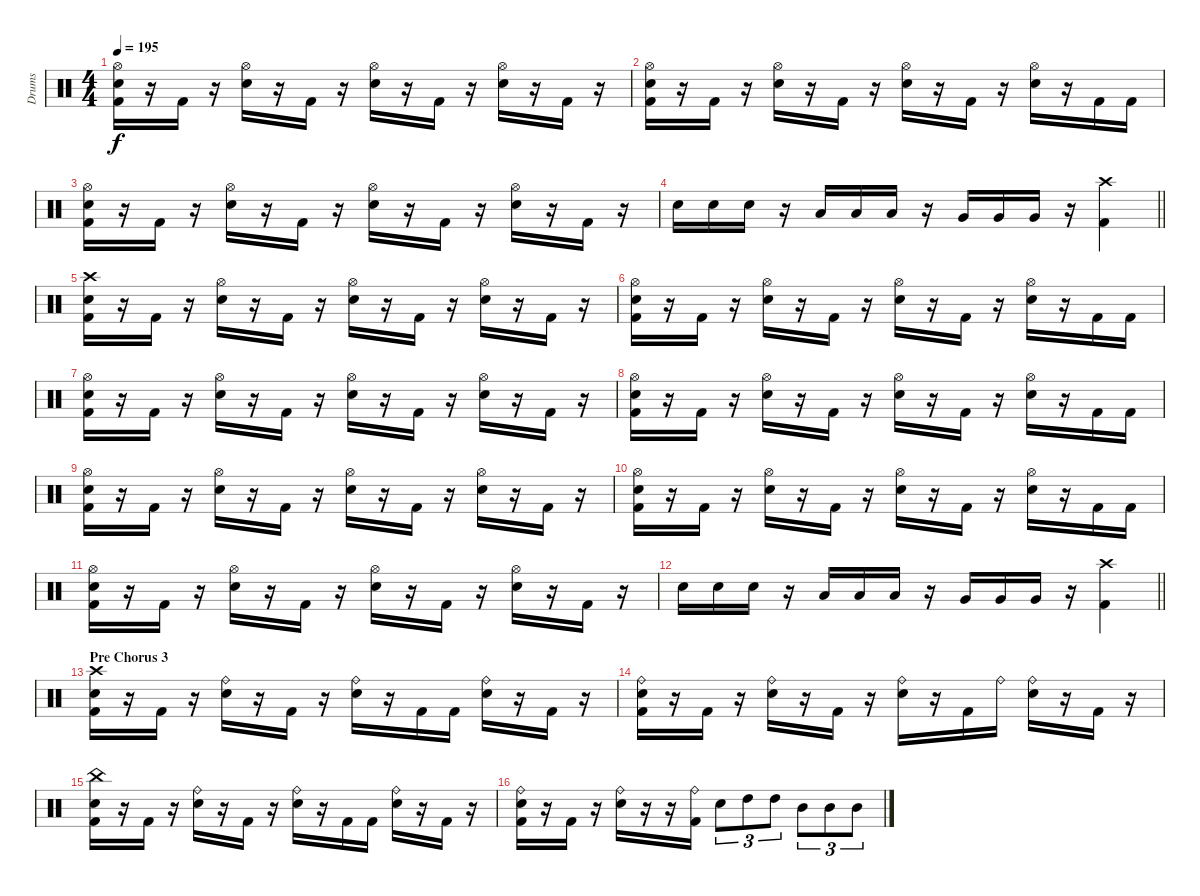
\track ("Drums" "Drums") {instrument percussion}
\staff {score}
\articulation defaults
\ts (4 4)
\tempo 195
\clef neutral
\ks c
("Hi-Hat (open)" "Electric Snare (hit)" "Kick (hit) 2").16{dy f} r.16 "Kick (hit) 2".16 r.16 ("Hi-Hat (open)" "Electric Snare (hit)").16 r.16 "Kick (hit) 2".16 r.16 ("Hi-Hat (open)" "Electric Snare (hit)").16 r.16 "Kick (hit) 2".16 r.16 ("Hi-Hat (open)" "Electric Snare (hit)").16 r.16 "Kick (hit) 2".16 r.16 |
("Hi-Hat (open)" "Electric Snare (hit)" "Kick (hit) 2").16 r.16 "Kick (hit) 2".16 r.16 ("Hi-Hat (open)" "Electric Snare (hit)").16 r.16 "Kick (hit) 2".16 r.16 ("Hi-Hat (open)" "Electric Snare (hit)").16 r.16 "Kick (hit) 2".16 r.16 ("Hi-Hat (open)" "Electric Snare (hit)").16 r.16 "Kick (hit) 2".16 "Kick (hit) 2".16 |
("Hi-Hat (open)" "Electric Snare (hit)" "Kick (hit) 2").16 r.16 "Kick (hit) 2".16 r.16 ("Hi-Hat (open)" "Electric Snare (hit)").16 r.16 "Kick (hit) 2".16 r.16 ("Hi-Hat (open)" "Electric Snare (hit)").16 r.16 "Kick (hit) 2".16 r.16 ("Hi-Hat (open)" "Electric Snare (hit)").16 r.16 "Kick (hit) 2".16 r.16 |
\barLineRight lightlight "Electric Snare (hit)".16 "Electric Snare (hit)".16 "Electric Snare (hit)".16
r.16 "Low Tom (hit)".16 "Low Tom (hit)".16 "Low Tom (hit)".16 r.16 "Very Low Tom (hit)".16 "Very Low Tom (hit)".16 "Very Low Tom (hit)".16 r.16 ("Crash high (hit)" "Kick (hit) 2").4 |
("Crash high (hit)" "Electric Snare (hit)" "Kick (hit) 2").16 r.16 "Kick (hit) 2".16 r.16 ("Hi-Hat (open)" "Electric Snare (hit)").16 r.16 "Kick (hit) 2".16 r.16 ("Hi-Hat (open)" "Electric Snare (hit)").16 r.16 "Kick (hit) 2".16 r.16 ("Hi-Hat (open)" "Electric Snare (hit)").16 r.16 "Kick (hit) 2".16 r.16 |
("Hi-Hat (open)" "Electric Snare (hit)" "Kick (hit) 2").16 r.16 "Kick (hit) 2".16 r.16 ("Hi-Hat (open)" "Electric Snare (hit)").16 r.16 "Kick (hit) 2".16 r.16 ("Hi-Hat (open)" "Electric Snare (hit)").16 r.16 "Kick (hit) 2".16 r.16 ("Hi-Hat (open)" "Electric Snare (hit)").16 r.16 "Kick (hit) 2".16 "Kick (hit) 2".16 |
("Hi-Hat (open)" "Electric Snare (hit)" "Kick (hit) 2").16 r.16 "Kick (hit) 2".16 r.16 ("Hi-Hat (open)" "Electric Snare (hit)").16 r.16 "Kick (hit) 2".16 r.16 ("Hi-Hat (open)" "Electric Snare (hit)").16 r.16 "Kick (hit) 2".16 r.16 ("Hi-Hat (open)" "Electric Snare (hit)").16 r.16 "Kick (hit) 2".16 r.16 |
("Hi-Hat (open)" "Electric Snare (hit)" "Kick (hit) 2").16 r.16 "Kick (hit) 2".16 r.16 ("Hi-Hat (open)" "Electric Snare (hit)").16 r.16 "Kick (hit) 2".16 r.16 ("Hi-Hat (open)" "Electric Snare (hit)").16 r.16 "Kick (hit) 2".16 r.16 ("Hi-Hat (open)" "Electric Snare (hit)").16 r.16 "Kick (hit) 2".16 "Kick (hit) 2".16 |
("Hi-Hat (open)" "Electric Snare (hit)" "Kick (hit) 2").16 r.16 "Kick (hit) 2".16 r.16 ("Hi-Hat (open)" "Electric Snare (hit)").16 r.16 "Kick (hit) 2".16 r.16 ("Hi-Hat (open)" "Electric Snare (hit)").16 r.16 "Kick (hit) 2".16 r.16 ("Hi-Hat (open)" "Electric Snare (hit)").16 r.16 "Kick (hit) 2".16 r.16 |
("Hi-Hat (open)" "Electric Snare (hit)" "Kick (hit) 2").16 r.16 "Kick (hit) 2".16 r.16 ("Hi-Hat (open)" "Electric Snare (hit)").16 r.16 "Kick (hit) 2".16 r.16 ("Hi-Hat (open)" "Electric Snare (hit)").16 r.16 "Kick (hit) 2".16 r.16 ("Hi-Hat (open)" "Electric Snare (hit)").16 r.16 "Kick (hit) 2".16 "Kick (hit) 2".16 |
("Hi-Hat (open)" "Electric Snare (hit)" "Kick (hit) 2").16 r.16 "Kick (hit) 2".16 r.16 ("Hi-Hat (open)" "Electric Snare (hit)").16 r.16 "Kick (hit) 2".16 r.16 ("Hi-Hat (open)" "Electric Snare (hit)").16 r.16 "Kick (hit) 2".16 r.16 ("Hi-Hat (open)" "Electric Snare (hit)").16 r.16 "Kick (hit) 2".16 r.16 |
\barLineRight lightlight "Electric Snare (hit)".16 "Electric Snare (hit)".16 "Electric Snare (hit)".16
r.16 "Low Tom (hit)".16 "Low Tom (hit)".16 "Low Tom (hit)".16 r.16 "Very Low Tom (hit)".16 "Very Low Tom (hit)".16 "Very Low Tom (hit)".16 r.16 ("Crash high (hit)" "Kick (hit) 2").4 |
\section ("" "Pre Chorus 3")
("Crash high (hit)" "Electric Snare (hit)" "Kick (hit) 2").16 r.16 "Kick (hit) 2".16 r.16 ("Ride (bell)" "Electric Snare (hit)").16 r.16 "Kick (hit) 2".16 r.16 ("Ride (bell)" "Electric Snare (hit)").16 r.16 "Kick (hit) 2".16 "Kick (hit) 2".16 ("Ride (bell)" "Electric Snare (hit)").16 r.16 "Kick (hit) 2".16 r.16 |
("Ride (bell)" "Electric Snare (hit)" "Kick (hit) 2").16 r.16 "Kick (hit) 2".16 r.16 ("Ride (bell)" "Electric Snare (hit)").16 r.16 "Kick (hit) 2".16 r.16 ("Ride (bell)" "Electric Snare (hit)").16 r.16 "Kick (hit) 2".16 "Ride (bell)".16 ("Ride (bell)" "Electric Snare (hit)").16 r.16 "Kick (hit) 2".16 r.16 |
("China (hit)" "Electric Snare (hit)" "Kick (hit) 2").16 r.16 "Kick (hit) 2".16 r.16 ("Ride (bell)" "Electric Snare (hit)").16 r.16 "Kick (hit) 2".16 r.16 ("Ride (bell)" "Electric Snare (hit)").16 r.16 "Kick (hit) 2".16 "Kick (hit) 2".16 ("Ride (bell)" "Electric Snare (hit)").16 r.16 "Kick (hit) 2".16 r.16 |
("Ride (bell)" "Electric Snare (hit)" "Kick (hit) 2").16 r.16 "Kick (hit) 2".16 r.16 ("Ride (bell)" "Electric Snare (hit)").16 r.16 r.16 ("Ride (bell)" "Kick (hit) 2").16 "Electric Snare (hit)".8{tu (3 2)} "High Tom (hit)".8{tu (3 2)} "High Tom (hit)".8{tu (3 2)} "Mid Tom (hit)".8{tu (3 2)} "Mid Tom (hit)".8{tu (3 2)} "Mid Tom (hit)".8{tu (3 2)}
